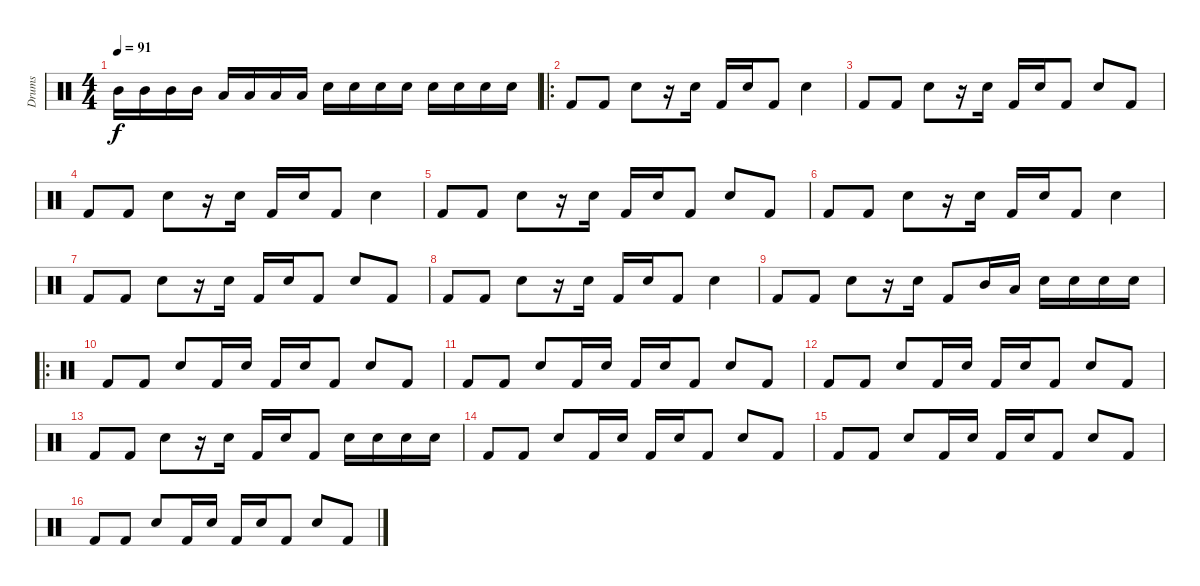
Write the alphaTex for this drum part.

\track ("Drums" "Drums") {instrument percussion}
\staff {score}
\articulation defaults
\ts (4 4)
\tempo 91
\clef neutral
\ks c "Mid Tom (hit)".16{dy f} "Mid Tom (hit)".16 "Mid Tom (hit)".16 "Mid Tom (hit)".16 "Low Tom (hit)".16 "Low Tom (hit)".16 "Low Tom (hit)".16 "Low Tom (hit)".16 "Snare (hit) 2".16 "Snare (hit) 2".16 "Snare (hit) 2".16 "Snare (hit) 2".16 "Snare (hit) 2".16 "Snare (hit) 2".16 "Snare (hit) 2".16 "Snare (hit) 2".16
|
\ro "Kick (hit) 2".8 "Kick (hit) 2".8 "Snare (hit) 2".8
r.16 "Snare (hit) 2".16 "Kick (hit) 2".16 "Snare (hit) 2".16 "Kick (hit) 2".8 "Snare (hit) 2".4 |
"Kick (hit) 2".8 "Kick (hit) 2".8 "Snare (hit) 2".8 r.16 "Snare (hit) 2".16 "Kick (hit) 2".16 "Snare (hit) 2".16 "Kick (hit) 2".8 "Snare (hit) 2".8 "Kick (hit) 2".8 |
"Kick (hit) 2".8 "Kick (hit) 2".8 "Snare (hit) 2".8 r.16 "Snare (hit) 2".16 "Kick (hit) 2".16 "Snare (hit) 2".16 "Kick (hit) 2".8 "Snare (hit) 2".4 |
"Kick (hit) 2".8 "Kick (hit) 2".8 "Snare (hit) 2".8 r.16 "Snare (hit) 2".16 "Kick (hit) 2".16 "Snare (hit) 2".16 "Kick (hit) 2".8 "Snare (hit) 2".8 "Kick (hit) 2".8 |
"Kick (hit) 2".8 "Kick (hit) 2".8 "Snare (hit) 2".8 r.16 "Snare (hit) 2".16 "Kick (hit) 2".16 "Snare (hit) 2".16 "Kick (hit) 2".8 "Snare (hit) 2".4 |
"Kick (hit) 2".8 "Kick (hit) 2".8 "Snare (hit) 2".8 r.16 "Snare (hit) 2".16 "Kick (hit) 2".16 "Snare (hit) 2".16 "Kick (hit) 2".8 "Snare (hit) 2".8 "Kick (hit) 2".8 |
"Kick (hit) 2".8 "Kick (hit) 2".8 "Snare (hit) 2".8 r.16 "Snare (hit) 2".16 "Kick (hit) 2".16 "Snare (hit) 2".16 "Kick (hit) 2".8 "Snare (hit) 2".4 |
"Kick (hit) 2".8 "Kick (hit) 2".8 "Snare (hit) 2".8 r.16 "Snare (hit) 2".16 "Kick (hit) 2".8 "Mid Tom (hit)".16 "Low Tom (hit)".16 "Snare (hit) 2".16 "Snare (hit) 2".16 "Snare (hit) 2".16 "Snare (hit) 2".16 |
\ro "Kick (hit) 2".8 "Kick (hit) 2".8 "Snare (hit) 2".8 "Kick (hit) 2".16 "Snare (hit) 2".16 "Kick (hit) 2".16 "Snare (hit) 2".16 "Kick (hit) 2".8 "Snare (hit) 2".8 "Kick (hit) 2".8
|
"Kick (hit) 2".8 "Kick (hit) 2".8 "Snare (hit) 2".8 "Kick (hit) 2".16 "Snare (hit) 2".16 "Kick (hit) 2".16 "Snare (hit) 2".16 "Kick (hit) 2".8 "Snare (hit) 2".8 "Kick (hit) 2".8 |
"Kick (hit) 2".8 "Kick (hit) 2".8 "Snare (hit) 2".8 "Kick (hit) 2".16 "Snare (hit) 2".16 "Kick (hit) 2".16 "Snare (hit) 2".16 "Kick (hit) 2".8 "Snare (hit) 2".8 "Kick (hit) 2".8 |
"Kick (hit) 2".8 "Kick (hit) 2".8 "Snare (hit) 2".8 r.16 "Snare (hit) 2".16 "Kick (hit) 2".16 "Snare (hit) 2".16 "Kick (hit) 2".8 "Snare (hit) 2".16 "Snare (hit) 2".16 "Snare (hit) 2".16 "Snare (hit) 2".16 |
"Kick (hit) 2".8 "Kick (hit) 2".8 "Snare (hit) 2".8 "Kick (hit) 2".16 "Snare (hit) 2".16 "Kick (hit) 2".16 "Snare (hit) 2".16 "Kick (hit) 2".8 "Snare (hit) 2".8 "Kick (hit) 2".8 |
"Kick (hit) 2".8 "Kick (hit) 2".8 "Snare (hit) 2".8 "Kick (hit) 2".16 "Snare (hit) 2".16 "Kick (hit) 2".16 "Snare (hit) 2".16 "Kick (hit) 2".8 "Snare (hit) 2".8 "Kick (hit) 2".8 |
"Kick (hit) 2".8 "Kick (hit) 2".8 "Snare (hit) 2".8 "Kick (hit) 2".16 "Snare (hit) 2".16 "Kick (hit) 2".16 "Snare (hit) 2".16 "Kick (hit) 2".8 "Snare (hit) 2".8 "Kick (hit) 2".8
